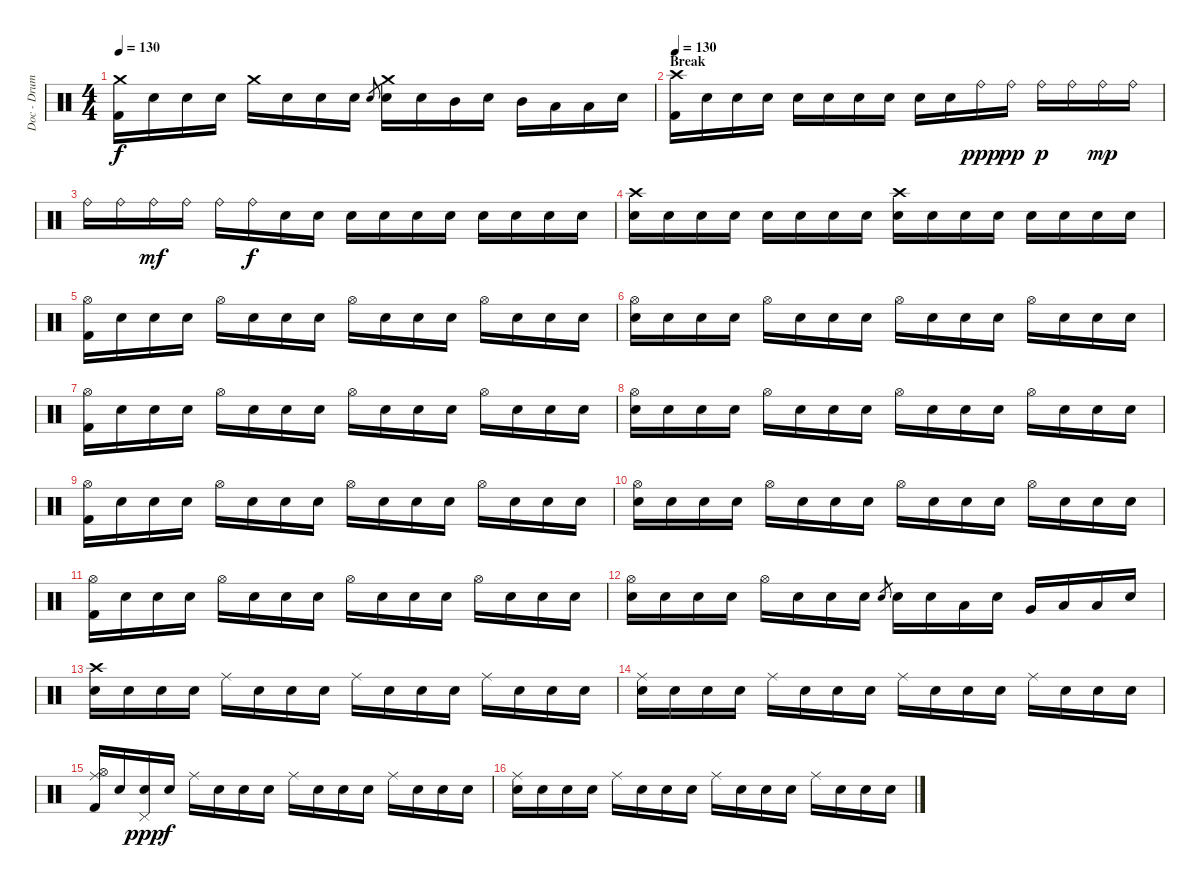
\track ("Doc - Drums" "Doc - Drum") {instrument percussion}
\staff {score}
\articulation defaults
\ts (4 4)
\tempo 130
\clef neutral
\ks c
("Crash medium (hit)" "Kick (hit) 2").16{dy f} "Snare (hit)".16 "Snare (hit)".16 "Snare (hit)".16 "Crash medium (hit)".16 "Snare (hit)".16 "Snare (hit)".16 "Snare (hit)".16 "Electric Snare (hit)".8{gr} ("Crash medium (hit)" "Electric Snare (hit)").16 "Snare (hit)".16 "Mid Tom (hit)".16 "Snare (hit)".16 "Mid Tom (hit)".16 "Low Tom (hit)".16 "Low Floor Tom (hit)".16 "Snare (hit)".16 |
\section ("" "Break")
\tempo 130
("Crash high (hit)" "Kick (hit) 2").16{volume 16 balance 8} "Snare (hit)".16 "Snare (hit)".16 "Snare (hit)".16 "Snare (hit)".16 "Snare (hit)".16 "Snare (hit)".16 "Snare (hit)".16 "Snare (hit)".16 "Snare (hit)".16 "Ride (bell)".16{dy ppp} "Ride (bell)".16{dy pp} "Ride (bell)".16{dy p} "Ride (bell)".16 "Ride (bell)".16{dy mp} "Ride (bell)".16 |
"Ride (bell)".16 "Ride (bell)".16 "Ride (bell)".16{dy mf} "Ride (bell)".16 "Ride (bell)".16 "Ride (bell)".16{dy f} "Snare (hit)".16 "Snare (hit)".16 "Snare (hit)".16 "Snare (hit)".16 "Snare (hit)".16 "Snare (hit)".16 "Snare (hit)".16 "Snare (hit)".16 "Snare (hit)".16 "Snare (hit)".16 |
("Crash high (hit)" "Electric Snare (hit)").16 "Snare (hit)".16 "Snare (hit)".16 "Snare (hit)".16 "Snare (hit)".16 "Snare (hit)".16 "Snare (hit)".16 "Snare (hit)".16 ("Crash high (hit)" "Electric Snare (hit)").16 "Snare (hit)".16 "Snare (hit)".16 "Snare (hit)".16 "Snare (hit)".16 "Snare (hit)".16 "Snare (hit)".16 "Snare (hit)".16 |
("Hi-Hat (open)" "Kick (hit) 2").16 "Snare (hit)".16 "Snare (hit)".16 "Snare (hit)".16 "Hi-Hat (open)".16 "Snare (hit)".16 "Snare (hit)".16 "Snare (hit)".16 "Hi-Hat (open)".16 "Snare (hit)".16 "Snare (hit)".16 "Snare (hit)".16 "Hi-Hat (open)".16 "Snare (hit)".16 "Snare (hit)".16 "Snare (hit)".16 |
("Hi-Hat (open)" "Electric Snare (hit)").16 "Snare (hit)".16 "Snare (hit)".16 "Snare (hit)".16 "Hi-Hat (open)".16 "Snare (hit)".16 "Snare (hit)".16 "Snare (hit)".16 "Hi-Hat (open)".16 "Snare (hit)".16 "Snare (hit)".16 "Snare (hit)".16 "Hi-Hat (open)".16 "Snare (hit)".16 "Snare (hit)".16 "Snare (hit)".16 |
("Hi-Hat (open)" "Kick (hit) 2").16 "Snare (hit)".16 "Snare (hit)".16 "Snare (hit)".16 "Hi-Hat (open)".16 "Snare (hit)".16 "Snare (hit)".16 "Snare (hit)".16 "Hi-Hat (open)".16 "Snare (hit)".16 "Snare (hit)".16 "Snare (hit)".16 "Hi-Hat (open)".16 "Snare (hit)".16 "Snare (hit)".16 "Snare (hit)".16 |
("Hi-Hat (open)" "Electric Snare (hit)").16 "Snare (hit)".16 "Snare (hit)".16 "Snare (hit)".16 "Hi-Hat (open)".16 "Snare (hit)".16 "Snare (hit)".16 "Snare (hit)".16 "Hi-Hat (open)".16 "Snare (hit)".16 "Snare (hit)".16 "Snare (hit)".16 "Hi-Hat (open)".16 "Snare (hit)".16 "Snare (hit)".16 "Electric Snare (hit)".16 |
("Hi-Hat (open)" "Kick (hit) 2").16 "Snare (hit)".16 "Snare (hit)".16 "Snare (hit)".16 "Hi-Hat (open)".16 "Snare (hit)".16 "Snare (hit)".16 "Snare (hit)".16 "Hi-Hat (open)".16 "Snare (hit)".16 "Snare (hit)".16 "Snare (hit)".16 "Hi-Hat (open)".16 "Snare (hit)".16 "Snare (hit)".16 "Snare (hit)".16 |
("Hi-Hat (open)" "Electric Snare (hit)").16 "Snare (hit)".16 "Snare (hit)".16 "Snare (hit)".16 "Hi-Hat (open)".16 "Snare (hit)".16 "Snare (hit)".16 "Snare (hit)".16 "Hi-Hat (open)".16 "Snare (hit)".16 "Snare (hit)".16 "Snare (hit)".16 "Hi-Hat (open)".16 "Snare (hit)".16 "Snare (hit)".16 "Snare (hit)".16 |
("Hi-Hat (open)" "Kick (hit) 2").16 "Snare (hit)".16 "Snare (hit)".16 "Snare (hit)".16 "Hi-Hat (open)".16 "Snare (hit)".16 "Snare (hit)".16 "Snare (hit)".16 "Hi-Hat (open)".16 "Snare (hit)".16 "Snare (hit)".16 "Snare (hit)".16 "Hi-Hat (open)".16 "Snare (hit)".16 "Snare (hit)".16 "Snare (hit)".16 |
("Hi-Hat (open)" "Electric Snare (hit)").16 "Snare (hit)".16 "Snare (hit)".16 "Snare (hit)".16 "Hi-Hat (open)".16 "Snare (hit)".16 "Snare (hit)".16 "Snare (hit)".16 "Electric Snare (hit)".8{gr} "Electric Snare (hit)".16 "Snare (hit)".16 "Low Tom (hit)".16 "Snare (hit)".16 "Very Low Tom (hit)".16 "Low Floor Tom (hit)".16 "Low Floor Tom (hit)".16 "Snare (hit)".16 |
("Crash high (hit)" "Electric Snare (hit)").16 "Snare (hit)".16 "Snare (hit)".16 "Snare (hit)".16 "Ride (middle)".16 "Snare (hit)".16 "Snare (hit)".16 "Snare (hit)".16 "Ride (middle)".16 "Snare (hit)".16 "Snare (hit)".16 "Snare (hit)".16 "Ride (middle)".16 "Snare (hit)".16 "Snare (hit)".16 "Snare (hit)".16 |
("Ride (middle)" "Electric Snare (hit)").16 "Snare (hit)".16 "Snare (hit)".16 "Snare (hit)".16 "Ride (middle)".16 "Snare (hit)".16 "Snare (hit)".16 "Snare (hit)".16 "Ride (middle)".16 "Snare (hit)".16 "Snare (hit)".16 "Snare (hit)".16 "Ride (middle)".16 "Snare (hit)".16 "Snare (hit)".16 "Snare (hit)".16 |
("Ride (middle)" "Hi-Hat (open)" "Kick (hit) 2").16 "Snare (hit)".16 ("Pedal Hi-Hat (hit)" "Snare (hit)").16{dy ppp} "Snare (hit)".16{dy f} "Ride (middle)".16 "Snare (hit)".16 "Snare (hit)".16 "Snare (hit)".16 "Ride (middle)".16 "Snare (hit)".16 "Snare (hit)".16 "Snare (hit)".16 "Ride (middle)".16 "Snare (hit)".16 "Snare (hit)".16 "Snare (hit)".16 |
("Ride (middle)" "Electric Snare (hit)").16 "Snare (hit)".16 "Snare (hit)".16 "Snare (hit)".16 "Ride (middle)".16 "Snare (hit)".16 "Snare (hit)".16 "Snare (hit)".16 "Ride (middle)".16 "Snare (hit)".16 "Snare (hit)".16 "Snare (hit)".16 "Ride (middle)".16 "Snare (hit)".16 "Snare (hit)".16 "Snare (hit)".16
